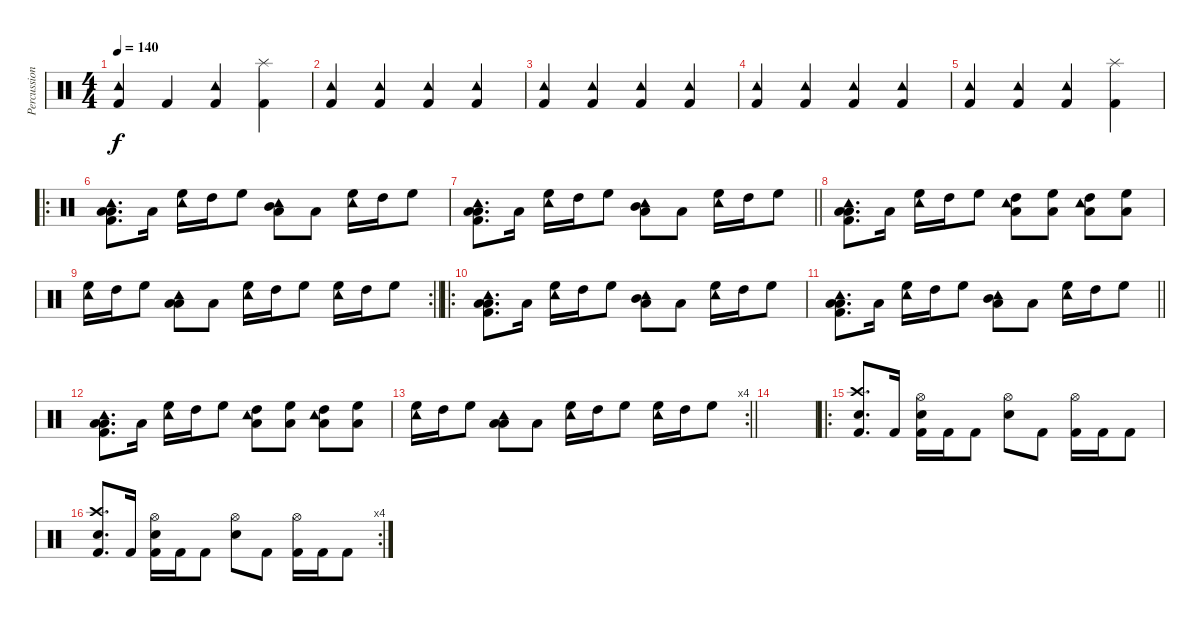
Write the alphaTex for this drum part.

\track ("Percussion" "Percussion") {instrument percussion}
\staff {score}
\articulation defaults
\ts (4 4)
\tempo 140
\clef neutral
\ks c
("Tambourine (hit)" "Kick (hit) 2").4{dy f} "Kick (hit) 2".4 ("Tambourine (hit)" "Kick (hit) 2").4 ("Splash (hit)" "Kick (hit) 2").4 |
("Tambourine (hit)" "Kick (hit) 2").4 ("Tambourine (hit)" "Kick (hit) 2").4 ("Tambourine (hit)" "Kick (hit) 2").4 ("Tambourine (hit)" "Kick (hit) 2").4 |
("Tambourine (hit)" "Kick (hit) 2").4 ("Tambourine (hit)" "Kick (hit) 2").4 ("Tambourine (hit)" "Kick (hit) 2").4 ("Tambourine (hit)" "Kick (hit) 2").4 |
("Tambourine (hit)" "Kick (hit) 2").4 ("Tambourine (hit)" "Kick (hit) 2").4 ("Tambourine (hit)" "Kick (hit) 2").4 ("Tambourine (hit)" "Kick (hit) 2").4 |
("Tambourine (hit)" "Kick (hit) 2").4 ("Tambourine (hit)" "Kick (hit) 2").4 ("Tambourine (hit)" "Kick (hit) 2").4 ("Splash (hit)" "Kick (hit) 2").4 |
\ro
("Tambourine (hit)" "Low Floor Tom (hit)" "Low Floor Tom (hit)" "Kick (hit) 2").8{d} "Low Floor Tom (hit)".16 ("Tambourine (hit)" "High Floor Tom (hit)").16 "High Tom (hit)".16 "High Floor Tom (hit)".8 ("Tambourine (hit)" "Mid Tom (hit)" "Low Floor Tom (hit)").8 "Low Tom (hit)".8 ("Tambourine (hit)" "High Floor Tom (hit)").16 "High Tom (hit)".16 "High Floor Tom (hit)".8 |
\barLineRight lightlight
("Tambourine (hit)" "Low Floor Tom (hit)" "Low Floor Tom (hit)" "Kick (hit) 2").8{d} "Low Floor Tom (hit)".16 ("Tambourine (hit)" "High Floor Tom (hit)").16 "High Tom (hit)".16 "High Floor Tom (hit)".8 ("Tambourine (hit)" "Mid Tom (hit)" "Low Floor Tom (hit)").8 "Low Tom (hit)".8 ("Tambourine (hit)" "High Floor Tom (hit)").16 "High Tom (hit)".16 "High Floor Tom (hit)".8 |
("Tambourine (hit)" "Low Floor Tom (hit)" "Low Floor Tom (hit)" "Kick (hit) 2").8{d} "Low Floor Tom (hit)".16 ("Tambourine (hit)" "High Floor Tom (hit)").16 "High Tom (hit)".16 "High Floor Tom (hit)".8 ("Tambourine (hit)" "High Tom (hit)" "Low Floor Tom (hit)").8 ("High Floor Tom (hit)" "Low Floor Tom (hit)").8 ("Tambourine (hit)" "High Tom (hit)" "Low Floor Tom (hit)").8 ("High Floor Tom (hit)" "Low Floor Tom (hit)").8 |
\rc 2
\barLineRight lightlight
("Tambourine (hit)" "High Floor Tom (hit)").16 "High Tom (hit)".16 "High Floor Tom (hit)".8 ("Tambourine (hit)" "Low Floor Tom (hit)" "Low Floor Tom (hit)").8 "Low Floor Tom (hit)".8 ("Tambourine (hit)" "High Floor Tom (hit)").16 "High Tom (hit)".16 "High Floor Tom (hit)".8 ("Tambourine (hit)" "High Floor Tom (hit)").16 "High Tom (hit)".16 "High Floor Tom (hit)".8 |
\ro
("Tambourine (hit)" "Low Floor Tom (hit)" "Low Floor Tom (hit)" "Kick (hit) 2").8{d} "Low Floor Tom (hit)".16 ("Tambourine (hit)" "High Floor Tom (hit)").16 "High Tom (hit)".16 "High Floor Tom (hit)".8 ("Tambourine (hit)" "Mid Tom (hit)" "Low Floor Tom (hit)").8 "Low Tom (hit)".8 ("Tambourine (hit)" "High Floor Tom (hit)").16 "High Tom (hit)".16 "High Floor Tom (hit)".8 |
\barLineRight lightlight
("Tambourine (hit)" "Low Floor Tom (hit)" "Low Floor Tom (hit)" "Kick (hit) 2").8{d} "Low Floor Tom (hit)".16 ("Tambourine (hit)" "High Floor Tom (hit)").16 "High Tom (hit)".16 "High Floor Tom (hit)".8 ("Tambourine (hit)" "Mid Tom (hit)" "Low Floor Tom (hit)").8 "Low Tom (hit)".8 ("Tambourine (hit)" "High Floor Tom (hit)").16 "High Tom (hit)".16 "High Floor Tom (hit)".8 |
("Tambourine (hit)" "Low Floor Tom (hit)" "Low Floor Tom (hit)" "Kick (hit) 2").8{d} "Low Floor Tom (hit)".16 ("Tambourine (hit)" "High Floor Tom (hit)").16 "High Tom (hit)".16 "High Floor Tom (hit)".8 ("Tambourine (hit)" "High Tom (hit)" "Low Floor Tom (hit)").8 ("High Floor Tom (hit)" "Low Floor Tom (hit)").8 ("Tambourine (hit)" "High Tom (hit)" "Low Floor Tom (hit)").8 ("High Floor Tom (hit)" "Low Floor Tom (hit)").8 |
\rc 4
\barLineRight lightlight
("Tambourine (hit)" "High Floor Tom (hit)").16 "High Tom (hit)".16 "High Floor Tom (hit)".8 ("Tambourine (hit)" "Low Floor Tom (hit)" "Low Floor Tom (hit)").8 "Low Floor Tom (hit)".8 ("Tambourine (hit)" "High Floor Tom (hit)").16 "High Tom (hit)".16 "High Floor Tom (hit)".8 ("Tambourine (hit)" "High Floor Tom (hit)").16 "High Tom (hit)".16 "High Floor Tom (hit)".8 |
|
\ro
("Crash high (hit)" "Snare (hit) 2" "Kick (hit) 2").8{d} "Kick (hit) 2".16 ("Hi-Hat (open)" "Snare (hit) 2" "Kick (hit) 2").16 "Kick (hit) 2".16 "Kick (hit) 2".8 ("Hi-Hat (open)" "Snare (hit) 2").8 "Kick (hit) 2".8 ("Hi-Hat (open)" "Kick (hit) 2").16 "Kick (hit) 2".16 "Kick (hit) 2".8 |
\rc 4
("Crash high (hit)" "Snare (hit) 2" "Kick (hit) 2").8{d} "Kick (hit) 2".16 ("Hi-Hat (open)" "Snare (hit) 2" "Kick (hit) 2").16 "Kick (hit) 2".16 "Kick (hit) 2".8 ("Hi-Hat (open)" "Snare (hit) 2").8 "Kick (hit) 2".8 ("Hi-Hat (open)" "Kick (hit) 2").16 "Kick (hit) 2".16 "Kick (hit) 2".8
